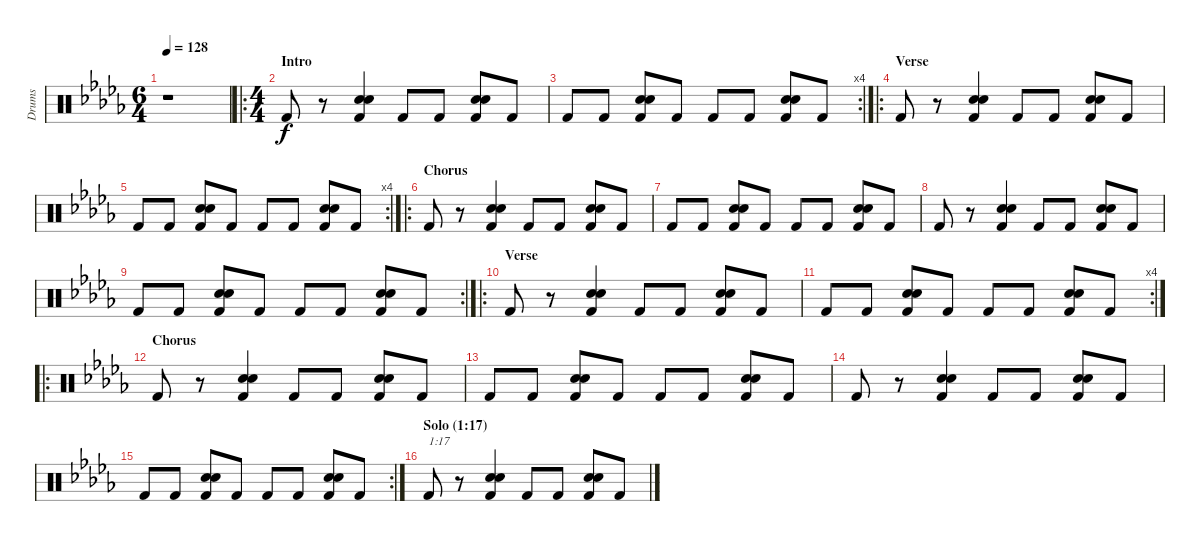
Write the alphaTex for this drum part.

\track ("Drums" "Drums") {instrument percussion}
\staff {score}
\articulation defaults
\ts (6 4)
\tempo 128
\clef neutral
\ks bbminor
r.1{dy f} |
\ro
\ts (4 4)
\section ("" "Intro")
"Kick (hit) 2".8 r.8 ("Kick (hit) 2" "Electric Snare (hit)" "Electric Snare (hit)").4 "Kick (hit) 2".8 "Kick (hit) 2".8 ("Kick (hit) 2" "Electric Snare (hit)" "Electric Snare (hit)").8 "Kick (hit) 2".8 |
\rc 4 "Kick (hit) 2".8 "Kick (hit) 2".8
("Kick (hit) 2" "Electric Snare (hit)" "Electric Snare (hit)").8 "Kick (hit) 2".8 "Kick (hit) 2".8 "Kick (hit) 2".8 ("Kick (hit) 2" "Electric Snare (hit)" "Electric Snare (hit)").8 "Kick (hit) 2".8 |
\ro
\section ("" "Verse")
"Kick (hit) 2".8 r.8 ("Kick (hit) 2" "Electric Snare (hit)" "Electric Snare (hit)").4 "Kick (hit) 2".8 "Kick (hit) 2".8 ("Kick (hit) 2" "Electric Snare (hit)" "Electric Snare (hit)").8 "Kick (hit) 2".8 |
\rc 4 "Kick (hit) 2".8 "Kick (hit) 2".8
("Kick (hit) 2" "Electric Snare (hit)" "Electric Snare (hit)").8 "Kick (hit) 2".8 "Kick (hit) 2".8 "Kick (hit) 2".8 ("Kick (hit) 2" "Electric Snare (hit)" "Electric Snare (hit)").8 "Kick (hit) 2".8 |
\ro
\section ("" "Chorus")
"Kick (hit) 2".8 r.8 ("Kick (hit) 2" "Electric Snare (hit)" "Electric Snare (hit)").4 "Kick (hit) 2".8 "Kick (hit) 2".8 ("Kick (hit) 2" "Electric Snare (hit)" "Electric Snare (hit)").8 "Kick (hit) 2".8 |
"Kick (hit) 2".8 "Kick (hit) 2".8 ("Kick (hit) 2" "Electric Snare (hit)" "Electric Snare (hit)").8 "Kick (hit) 2".8 "Kick (hit) 2".8 "Kick (hit) 2".8 ("Kick (hit) 2" "Electric Snare (hit)" "Electric Snare (hit)").8 "Kick (hit) 2".8 |
"Kick (hit) 2".8 r.8 ("Kick (hit) 2" "Electric Snare (hit)" "Electric Snare (hit)").4 "Kick (hit) 2".8 "Kick (hit) 2".8 ("Kick (hit) 2" "Electric Snare (hit)" "Electric Snare (hit)").8 "Kick (hit) 2".8 |
\rc 2 "Kick (hit) 2".8 "Kick (hit) 2".8
("Kick (hit) 2" "Electric Snare (hit)" "Electric Snare (hit)").8 "Kick (hit) 2".8 "Kick (hit) 2".8 "Kick (hit) 2".8 ("Kick (hit) 2" "Electric Snare (hit)" "Electric Snare (hit)").8 "Kick (hit) 2".8 |
\ro
\section ("" "Verse")
"Kick (hit) 2".8 r.8 ("Kick (hit) 2" "Electric Snare (hit)" "Electric Snare (hit)").4 "Kick (hit) 2".8 "Kick (hit) 2".8 ("Kick (hit) 2" "Electric Snare (hit)" "Electric Snare (hit)").8 "Kick (hit) 2".8 |
\rc 4 "Kick (hit) 2".8 "Kick (hit) 2".8
("Kick (hit) 2" "Electric Snare (hit)" "Electric Snare (hit)").8 "Kick (hit) 2".8 "Kick (hit) 2".8 "Kick (hit) 2".8 ("Kick (hit) 2" "Electric Snare (hit)" "Electric Snare (hit)").8 "Kick (hit) 2".8 |
\ro
\section ("" "Chorus")
"Kick (hit) 2".8 r.8 ("Kick (hit) 2" "Electric Snare (hit)" "Electric Snare (hit)").4 "Kick (hit) 2".8 "Kick (hit) 2".8 ("Kick (hit) 2" "Electric Snare (hit)" "Electric Snare (hit)").8 "Kick (hit) 2".8 |
"Kick (hit) 2".8 "Kick (hit) 2".8 ("Kick (hit) 2" "Electric Snare (hit)" "Electric Snare (hit)").8 "Kick (hit) 2".8 "Kick (hit) 2".8 "Kick (hit) 2".8 ("Kick (hit) 2" "Electric Snare (hit)" "Electric Snare (hit)").8 "Kick (hit) 2".8 |
"Kick (hit) 2".8 r.8 ("Kick (hit) 2" "Electric Snare (hit)" "Electric Snare (hit)").4 "Kick (hit) 2".8 "Kick (hit) 2".8 ("Kick (hit) 2" "Electric Snare (hit)" "Electric Snare (hit)").8 "Kick (hit) 2".8 |
\rc 2 "Kick (hit) 2".8 "Kick (hit) 2".8
("Kick (hit) 2" "Electric Snare (hit)" "Electric Snare (hit)").8 "Kick (hit) 2".8 "Kick (hit) 2".8 "Kick (hit) 2".8 ("Kick (hit) 2" "Electric Snare (hit)" "Electric Snare (hit)").8 "Kick (hit) 2".8 |
\section ("" "Solo (1:17)")
"Kick (hit) 2".8{txt "1:17"} r.8 ("Kick (hit) 2" "Electric Snare (hit)" "Electric Snare (hit)").4 "Kick (hit) 2".8 "Kick (hit) 2".8 ("Kick (hit) 2" "Electric Snare (hit)" "Electric Snare (hit)").8 "Kick (hit) 2".8
